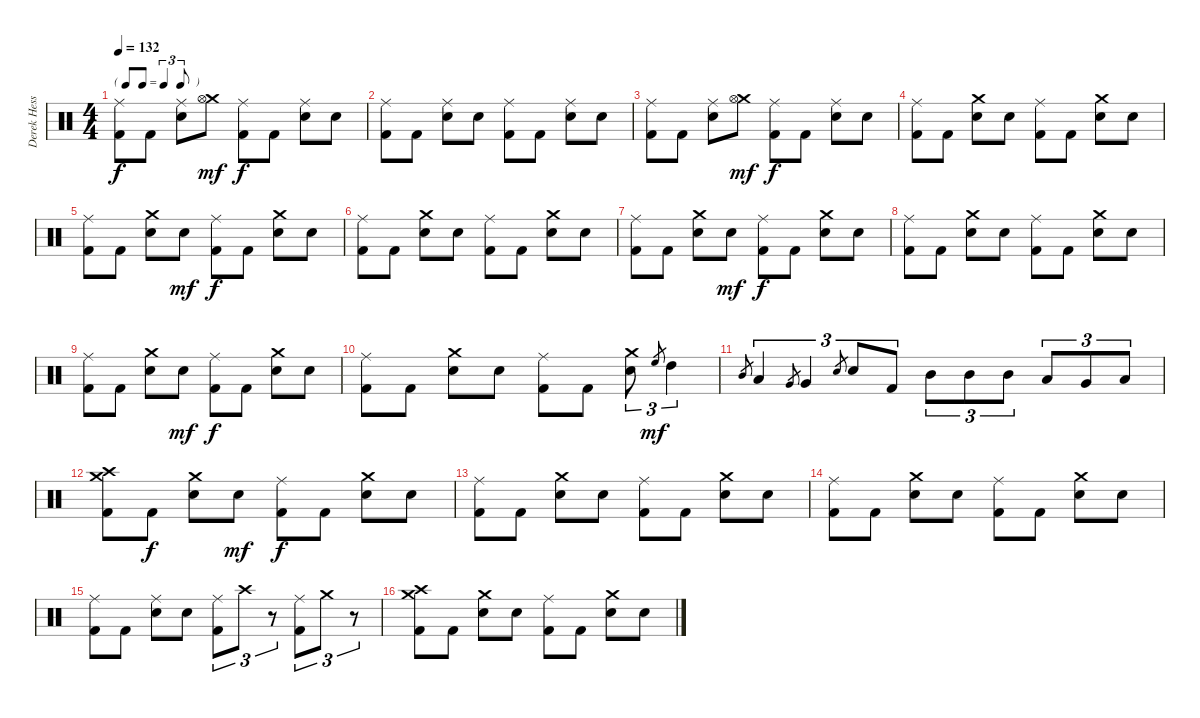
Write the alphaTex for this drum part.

\track ("Derek Hess (Drums and Percussion)" "Derek Hess") {instrument percussion}
\staff {score}
\articulation defaults
\ts (4 4)
\tf triplet8th
\tempo 132
\clef neutral
\ks c
("Ride (middle)" "Kick (hit) 2").8{dy f} "Kick (hit) 2".8 ("Ride (middle)" "Snare (hit) 2").8 ("Crash medium (hit)" "Hi-Hat (open)").8{dy mf} ("Ride (middle)" "Kick (hit) 2").8{dy f} "Kick (hit) 2".8 ("Ride (middle)" "Snare (hit) 2").8 "Snare (hit) 2".8 |
("Ride (middle)" "Kick (hit) 2").8 "Kick (hit) 2".8 ("Ride (middle)" "Snare (hit) 2").8 "Snare (hit) 2".8 ("Ride (middle)" "Kick (hit) 2").8 "Kick (hit) 2".8 ("Ride (middle)" "Snare (hit) 2").8 "Snare (hit) 2".8 |
("Ride (middle)" "Kick (hit) 2").8 "Kick (hit) 2".8 ("Ride (middle)" "Snare (hit) 2").8 ("Crash medium (hit)" "Hi-Hat (open)").8{dy mf} ("Ride (middle)" "Kick (hit) 2").8{dy f} "Kick (hit) 2".8 ("Ride (middle)" "Snare (hit) 2").8 "Snare (hit) 2".8 |
("Ride (middle)" "Kick (hit) 2").8 "Kick (hit) 2".8 ("Crash medium (hit)" "Snare (hit) 2").8 "Snare (hit) 2".8 ("Ride (middle)" "Kick (hit) 2").8 "Kick (hit) 2".8 ("Crash medium (hit)" "Snare (hit) 2").8 "Snare (hit) 2".8 |
("Ride (middle)" "Kick (hit) 2").8 "Kick (hit) 2".8 ("Crash medium (hit)" "Snare (hit) 2").8 "Snare (hit) 2".8{dy mf} ("Ride (middle)" "Kick (hit) 2").8{dy f} "Kick (hit) 2".8 ("Crash medium (hit)" "Snare (hit) 2").8 "Snare (hit) 2".8 |
("Ride (middle)" "Kick (hit) 2").8 "Kick (hit) 2".8 ("Crash medium (hit)" "Snare (hit) 2").8 "Snare (hit) 2".8 ("Ride (middle)" "Kick (hit) 2").8 "Kick (hit) 2".8 ("Crash medium (hit)" "Snare (hit) 2").8 "Snare (hit) 2".8 |
("Ride (middle)" "Kick (hit) 2").8 "Kick (hit) 2".8 ("Crash medium (hit)" "Snare (hit) 2").8 "Snare (hit) 2".8{dy mf} ("Ride (middle)" "Kick (hit) 2").8{dy f} "Kick (hit) 2".8 ("Crash medium (hit)" "Snare (hit) 2").8 "Snare (hit) 2".8 |
("Ride (middle)" "Kick (hit) 2").8 "Kick (hit) 2".8 ("Crash medium (hit)" "Snare (hit) 2").8 "Snare (hit) 2".8 ("Ride (middle)" "Kick (hit) 2").8 "Kick (hit) 2".8 ("Crash medium (hit)" "Snare (hit) 2").8 "Snare (hit) 2".8 |
("Ride (middle)" "Kick (hit) 2").8 "Kick (hit) 2".8 ("Crash medium (hit)" "Snare (hit) 2").8 "Snare (hit) 2".8{dy mf} ("Ride (middle)" "Kick (hit) 2").8{dy f} "Kick (hit) 2".8 ("Crash medium (hit)" "Snare (hit) 2").8 "Snare (hit) 2".8 |
("Ride (middle)" "Kick (hit) 2").8 "Kick (hit) 2".8 ("Crash medium (hit)" "Snare (hit) 2").8 "Snare (hit) 2".8 ("Ride (middle)" "Kick (hit) 2").8 "Kick (hit) 2".8 ("Crash medium (hit)" "Snare (hit) 2").8{tu (3 2)} "High Floor Tom (hit)".8{gr dy mf} "High Tom (hit)".4{tu (3 2)} |
"Mid Tom (hit)".8{gr} "Low Tom (hit)".4{tu (3 2)} "Very Low Tom (hit)".8{gr} "Very Low Tom (hit)".4{tu (3 2)} "Snare (hit) 2".8{gr} "Snare (hit) 2".8{tu (3 2)} "Kick (hit) 2".8{tu (3 2)} "Mid Tom (hit)".8{tu (3 2)} "Mid Tom (hit)".8{tu (3 2)} "Mid Tom (hit)".8{tu (3 2)} "Low Tom (hit)".8{tu (3 2)} "Very Low Tom (hit)".8{tu (3 2)} "Low Floor Tom (hit)".8{tu (3 2)} |
("Crash medium (hit)" "Crash high (hit)" "Kick (hit) 2").8 "Kick (hit) 2".8{dy f} ("Crash medium (hit)" "Snare (hit) 2").8 "Snare (hit) 2".8{dy mf} ("Ride (middle)" "Kick (hit) 2").8{dy f} "Kick (hit) 2".8 ("Crash medium (hit)" "Snare (hit) 2").8 "Snare (hit) 2".8 |
("Ride (middle)" "Kick (hit) 2").8 "Kick (hit) 2".8 ("Crash medium (hit)" "Snare (hit) 2").8 "Snare (hit) 2".8 ("Ride (middle)" "Kick (hit) 2").8 "Kick (hit) 2".8 ("Crash medium (hit)" "Snare (hit) 2").8 "Snare (hit) 2".8 |
("Ride (middle)" "Kick (hit) 2").8 "Kick (hit) 2".8 ("Crash medium (hit)" "Snare (hit) 2").8 "Snare (hit) 2".8 ("Ride (middle)" "Kick (hit) 2").8 "Kick (hit) 2".8 ("Crash medium (hit)" "Snare (hit) 2").8 "Snare (hit) 2".8 |
("Ride (middle)" "Kick (hit) 2").8 "Kick (hit) 2".8 ("Ride (middle)" "Snare (hit) 2").8 "Snare (hit) 2".8 ("Ride (middle)" "Kick (hit) 2").8{tu (3 2)} "Crash high (hit)".8{tu (3 2)} r.8{tu (3 2)} ("Ride (middle)" "Kick (hit) 2").8{tu (3 2)} "Crash medium (hit)".8{tu (3 2)} r.8{tu (3 2)} |
("Crash medium (hit)" "Crash high (hit)" "Kick (hit) 2").8 "Kick (hit) 2".8 ("Crash medium (hit)" "Snare (hit) 2").8 "Snare (hit) 2".8 ("Ride (middle)" "Kick (hit) 2").8 "Kick (hit) 2".8 ("Crash medium (hit)" "Snare (hit) 2").8 "Snare (hit) 2".8
